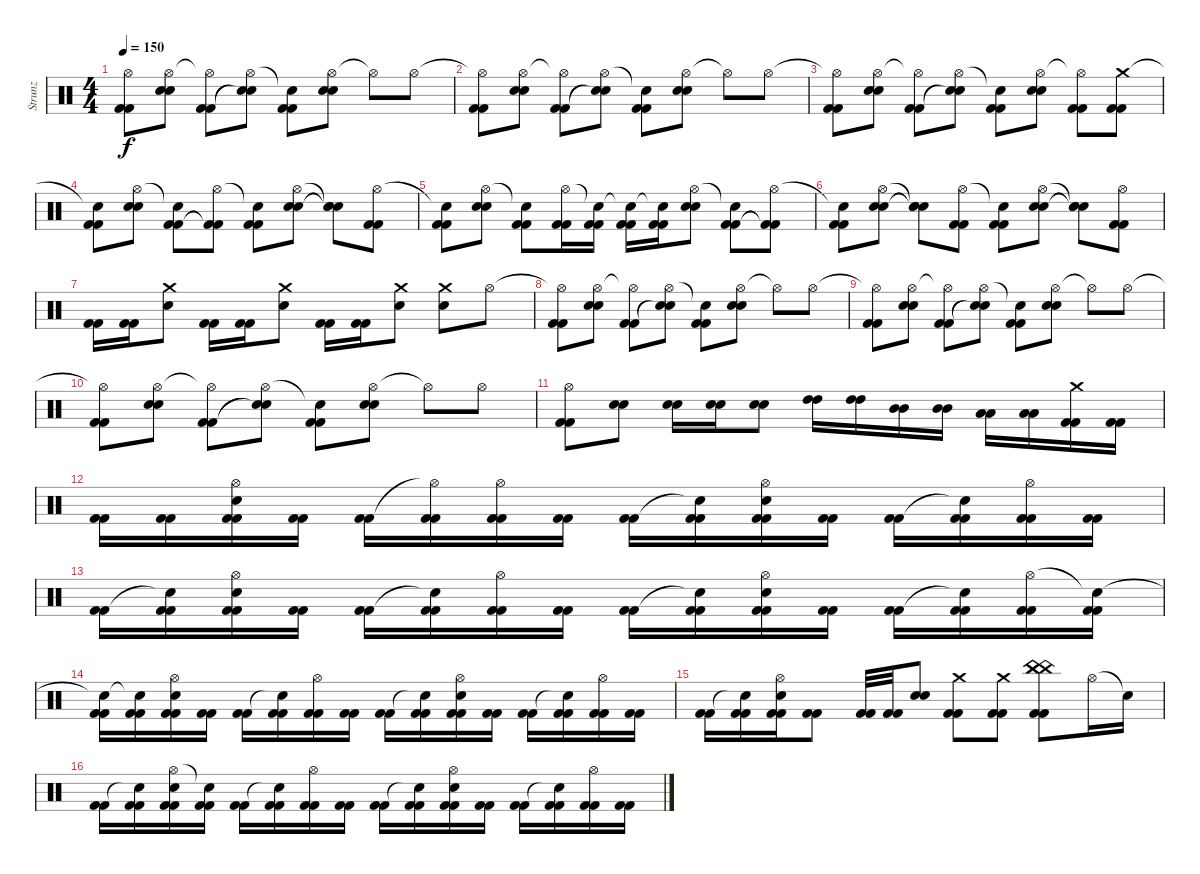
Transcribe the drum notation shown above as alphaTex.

\track ("Strunz" "Strunz") {instrument percussion}
\staff {score}
\articulation defaults
\ts (4 4)
\tempo 150
\clef neutral
\ks c
("Hi-Hat (open)"{t} "Kick (hit) 2" "Kick (hit) 2").8{dy f} ("Hi-Hat (open)" "Snare (hit) 2" "Snare (hit) 2").8 ("Hi-Hat (open)"{t} "Kick (hit) 2" "Kick (hit) 2").8 ("Hi-Hat (open)" "Snare (hit)"{t} "Snare (hit)"{t}).8 ("Snare (hit)"{t} "Kick (hit) 2" "Kick (hit) 2").8 ("Hi-Hat (open)" "Snare (hit) 2" "Snare (hit) 2").8 "Hi-Hat (open)"{t}.8 "Hi-Hat (open)".8 |
("Hi-Hat (open)"{t} "Kick (hit) 2" "Kick (hit) 2").8 ("Hi-Hat (open)" "Snare (hit) 2" "Snare (hit) 2").8 ("Hi-Hat (open)"{t} "Kick (hit) 2" "Kick (hit) 2").8 ("Hi-Hat (open)" "Snare (hit)"{t} "Snare (hit)"{t}).8 ("Snare (hit)"{t} "Kick (hit) 2" "Kick (hit) 2").8 ("Hi-Hat (open)" "Snare (hit) 2" "Snare (hit) 2").8 "Hi-Hat (open)"{t}.8 "Hi-Hat (open)".8 |
("Hi-Hat (open)"{t} "Kick (hit) 2" "Kick (hit) 2").8 ("Hi-Hat (open)" "Snare (hit) 2" "Snare (hit) 2").8 ("Hi-Hat (open)"{t} "Kick (hit) 2" "Kick (hit) 2").8 ("Hi-Hat (open)" "Snare (hit)"{t} "Snare (hit)"{t}).8 ("Snare (hit)"{t} "Kick (hit) 2" "Kick (hit) 2").8 ("Hi-Hat (open)" "Snare (hit) 2" "Snare (hit) 2").8 ("Hi-Hat (open)"{t} "Kick (hit) 2" "Kick (hit) 2").8 ("Crash medium (hit)" "Kick (hit) 2" "Kick (hit) 2").8 |
("Snare (hit)"{t} "Kick (hit) 2" "Kick (hit) 2").8 ("Hi-Hat (open)" "Snare (hit) 2" "Snare (hit) 2").8 ("Snare (hit)"{t} "Kick (hit) 2" "Kick (hit) 2").8 ("Hi-Hat (open)" "Kick (hit) 2"{t} "Kick (hit) 2"{t}).8 ("Snare (hit)"{t} "Kick (hit) 2" "Kick (hit) 2").8 ("Hi-Hat (open)" "Snare (hit) 2" "Snare (hit) 2").8 ("Snare (hit)"{t} "Snare (hit) 2"{t} "Snare (hit) 2"{t}).8 ("Hi-Hat (open)" "Kick (hit) 2" "Kick (hit) 2").8 |
("Snare (hit)"{t} "Kick (hit) 2" "Kick (hit) 2").8 ("Hi-Hat (open)" "Snare (hit) 2" "Snare (hit) 2").8 ("Snare (hit)"{t} "Kick (hit) 2" "Kick (hit) 2").8 ("Hi-Hat (open)" "Kick (hit) 2" "Kick (hit) 2").16 ("Snare (hit)"{t} "Kick (hit) 2" "Kick (hit) 2").16 ("Snare (hit)"{t} "Kick (hit) 2" "Kick (hit) 2").16 ("Snare (hit)"{t} "Kick (hit) 2" "Kick (hit) 2").16 ("Hi-Hat (open)" "Snare (hit) 2" "Snare (hit) 2").8 ("Snare (hit)"{t} "Kick (hit) 2" "Kick (hit) 2").8 ("Hi-Hat (open)" "Kick (hit) 2"{t} "Kick (hit) 2"{t}).8 |
("Snare (hit)"{t} "Kick (hit) 2" "Kick (hit) 2").8 ("Hi-Hat (open)" "Snare (hit) 2" "Snare (hit) 2").8 ("Snare (hit)"{t} "Snare (hit) 2"{t} "Snare (hit) 2"{t}).8 ("Hi-Hat (open)" "Kick (hit) 2" "Kick (hit) 2").8 ("Snare (hit)"{t} "Kick (hit) 2" "Kick (hit) 2").8 ("Hi-Hat (open)" "Snare (hit) 2" "Snare (hit) 2").8 ("Snare (hit)"{t} "Snare (hit)"{t} "Snare (hit)"{t}).8 ("Hi-Hat (open)" "Kick (hit) 2" "Kick (hit) 2").8 |
("Kick (hit) 2" "Kick (hit) 2").16 ("Kick (hit) 2" "Kick (hit) 2").16 ("Crash medium (hit)" "Snare (hit) 2").8 ("Kick (hit) 2" "Kick (hit) 2").16 ("Kick (hit) 2" "Kick (hit) 2").16 ("Crash medium (hit)" "Snare (hit) 2").8 ("Kick (hit) 2" "Kick (hit) 2").16 ("Kick (hit) 2" "Kick (hit) 2").16 ("Crash medium (hit)" "Snare (hit) 2").8 ("Crash medium (hit)" "Snare (hit) 2").8 "Hi-Hat (open)".8 |
("Hi-Hat (open)"{t} "Kick (hit) 2" "Kick (hit) 2").8 ("Hi-Hat (open)" "Snare (hit) 2" "Snare (hit) 2").8 ("Hi-Hat (open)"{t} "Kick (hit) 2" "Kick (hit) 2").8 ("Hi-Hat (open)" "Snare (hit)"{t} "Snare (hit)"{t}).8 ("Snare (hit)"{t} "Kick (hit) 2" "Kick (hit) 2").8 ("Hi-Hat (open)" "Snare (hit) 2" "Snare (hit) 2").8 "Hi-Hat (open)"{t}.8 "Hi-Hat (open)".8 |
("Hi-Hat (open)"{t} "Kick (hit) 2" "Kick (hit) 2").8 ("Hi-Hat (open)" "Snare (hit) 2" "Snare (hit) 2").8 ("Hi-Hat (open)"{t} "Kick (hit) 2" "Kick (hit) 2").8 ("Hi-Hat (open)" "Snare (hit)"{t} "Snare (hit)"{t}).8 ("Snare (hit)"{t} "Kick (hit) 2" "Kick (hit) 2").8 ("Hi-Hat (open)" "Snare (hit) 2" "Snare (hit) 2").8 "Hi-Hat (open)"{t}.8 "Hi-Hat (open)".8 |
("Hi-Hat (open)"{t} "Kick (hit) 2" "Kick (hit) 2").8 ("Hi-Hat (open)" "Snare (hit) 2" "Snare (hit) 2").8 ("Hi-Hat (open)"{t} "Kick (hit) 2" "Kick (hit) 2").8 ("Hi-Hat (open)" "Snare (hit)"{t} "Snare (hit)"{t}).8 ("Snare (hit)"{t} "Kick (hit) 2" "Kick (hit) 2").8 ("Hi-Hat (open)" "Snare (hit) 2" "Snare (hit) 2").8 "Hi-Hat (open)"{t}.8 "Hi-Hat (open)".8 |
("Hi-Hat (open)" "Kick (hit) 2" "Kick (hit) 2").8 ("Snare (hit) 2" "Snare (hit) 2").8 ("Snare (hit) 2" "Snare (hit) 2").16 ("Snare (hit) 2" "Snare (hit) 2").16 ("Snare (hit) 2" "Snare (hit) 2").8 ("High Tom (hit)" "High Tom (hit)").16 ("High Tom (hit)" "High Tom (hit)").16 ("Mid Tom (hit)" "Mid Tom (hit)").16 ("Mid Tom (hit)" "Mid Tom (hit)").16 ("Low Tom (hit)" "Low Tom (hit)").16 ("Low Tom (hit)" "Low Tom (hit)").16 ("Crash medium (hit)" "Kick (hit) 2" "Kick (hit) 2").16 ("Kick (hit) 2" "Kick (hit) 2").16 |
("Kick (hit) 2" "Kick (hit) 2").16 ("Kick (hit) 2" "Kick (hit) 2").16 ("Hi-Hat (open)" "Snare (hit) 2" "Kick (hit) 2" "Kick (hit) 2").16 ("Kick (hit) 2" "Kick (hit) 2").16 ("Kick (hit) 2" "Kick (hit) 2").16 ("Hi-Hat (open)"{t} "Kick (hit) 2" "Kick (hit) 2").16 ("Hi-Hat (open)" "Kick (hit) 2" "Kick (hit) 2").16 ("Kick (hit) 2" "Kick (hit) 2").16 ("Kick (hit) 2" "Kick (hit) 2").16 ("Snare (hit)"{t} "Kick (hit) 2" "Kick (hit) 2").16 ("Hi-Hat (open)" "Snare (hit) 2" "Kick (hit) 2" "Kick (hit) 2").16 ("Kick (hit) 2" "Kick (hit) 2").16 ("Kick (hit) 2" "Kick (hit) 2").16 ("Snare (hit)"{t} "Kick (hit) 2" "Kick (hit) 2").16 ("Hi-Hat (open)" "Kick (hit) 2" "Kick (hit) 2").16 ("Kick (hit) 2" "Kick (hit) 2").16 |
("Kick (hit) 2" "Kick (hit) 2").16 ("Snare (hit)"{t} "Kick (hit) 2" "Kick (hit) 2").16 ("Hi-Hat (open)" "Snare (hit) 2" "Kick (hit) 2" "Kick (hit) 2").16 ("Kick (hit) 2" "Kick (hit) 2").16 ("Kick (hit) 2" "Kick (hit) 2").16 ("Snare (hit)"{t} "Kick (hit) 2" "Kick (hit) 2").16 ("Hi-Hat (open)" "Kick (hit) 2" "Kick (hit) 2").16 ("Kick (hit) 2" "Kick (hit) 2").16 ("Kick (hit) 2" "Kick (hit) 2").16 ("Snare (hit)"{t} "Kick (hit) 2" "Kick (hit) 2").16 ("Hi-Hat (open)" "Snare (hit) 2" "Kick (hit) 2" "Kick (hit) 2").16 ("Kick (hit) 2" "Kick (hit) 2").16 ("Kick (hit) 2" "Kick (hit) 2").16 ("Snare (hit)"{t} "Kick (hit) 2" "Kick (hit) 2").16 ("Hi-Hat (open)" "Kick (hit) 2" "Kick (hit) 2").16 ("Snare (hit)"{t} "Kick (hit) 2" "Kick (hit) 2").16 |
("Snare (hit)"{t} "Kick (hit) 2" "Kick (hit) 2").16 ("Snare (hit)"{t} "Kick (hit) 2" "Kick (hit) 2").16 ("Hi-Hat (open)" "Snare (hit) 2" "Kick (hit) 2" "Kick (hit) 2").16 ("Kick (hit) 2" "Kick (hit) 2").16 ("Kick (hit) 2" "Kick (hit) 2").16 ("Snare (hit)"{t} "Kick (hit) 2" "Kick (hit) 2").16 ("Hi-Hat (open)" "Kick (hit) 2" "Kick (hit) 2").16 ("Kick (hit) 2" "Kick (hit) 2").16 ("Kick (hit) 2" "Kick (hit) 2").16 ("Snare (hit)"{t} "Kick (hit) 2" "Kick (hit) 2").16 ("Hi-Hat (open)" "Snare (hit) 2" "Kick (hit) 2" "Kick (hit) 2").16 ("Kick (hit) 2" "Kick (hit) 2").16 ("Kick (hit) 2" "Kick (hit) 2").16 ("Snare (hit)"{t} "Kick (hit) 2" "Kick (hit) 2").16 ("Hi-Hat (open)" "Kick (hit) 2" "Kick (hit) 2").16 ("Kick (hit) 2" "Kick (hit) 2").16 |
("Kick (hit) 2" "Kick (hit) 2").16 ("Snare (hit)"{t} "Kick (hit) 2" "Kick (hit) 2").16 ("Hi-Hat (open)" "Snare (hit) 2" "Kick (hit) 2" "Kick (hit) 2").16 ("Kick (hit) 2" "Kick (hit) 2").8 ("Kick (hit) 2" "Kick (hit) 2").32 ("Kick (hit) 2" "Kick (hit) 2").32 ("Snare (hit) 2" "Snare (hit) 2").8 ("Crash medium (hit)" "Kick (hit) 2" "Kick (hit) 2").8 ("Crash medium (hit)" "Kick (hit) 2" "Kick (hit) 2").8 ("China (hit)" "China (hit)" "China (hit)" "Kick (hit) 2" "Kick (hit) 2").8 "Hi-Hat (open)".16 "Snare (hit)"{t}.16 |
("Kick (hit) 2" "Kick (hit) 2").16 ("Snare (hit)"{t} "Kick (hit) 2" "Kick (hit) 2").16 ("Hi-Hat (open)" "Snare (hit) 2" "Kick (hit) 2" "Kick (hit) 2").16 ("Snare (hit)"{t} "Kick (hit) 2" "Kick (hit) 2").16 ("Kick (hit) 2" "Kick (hit) 2").16 ("Snare (hit)"{t} "Kick (hit) 2" "Kick (hit) 2").16 ("Hi-Hat (open)" "Kick (hit) 2" "Kick (hit) 2").16 ("Kick (hit) 2" "Kick (hit) 2").16 ("Kick (hit) 2" "Kick (hit) 2").16 ("Snare (hit)"{t} "Kick (hit) 2" "Kick (hit) 2").16 ("Hi-Hat (open)" "Snare (hit) 2" "Kick (hit) 2" "Kick (hit) 2").16 ("Kick (hit) 2" "Kick (hit) 2").16 ("Kick (hit) 2" "Kick (hit) 2").16 ("Snare (hit)"{t} "Kick (hit) 2" "Kick (hit) 2").16 ("Hi-Hat (open)" "Kick (hit) 2" "Kick (hit) 2").16 ("Kick (hit) 2" "Kick (hit) 2").16
